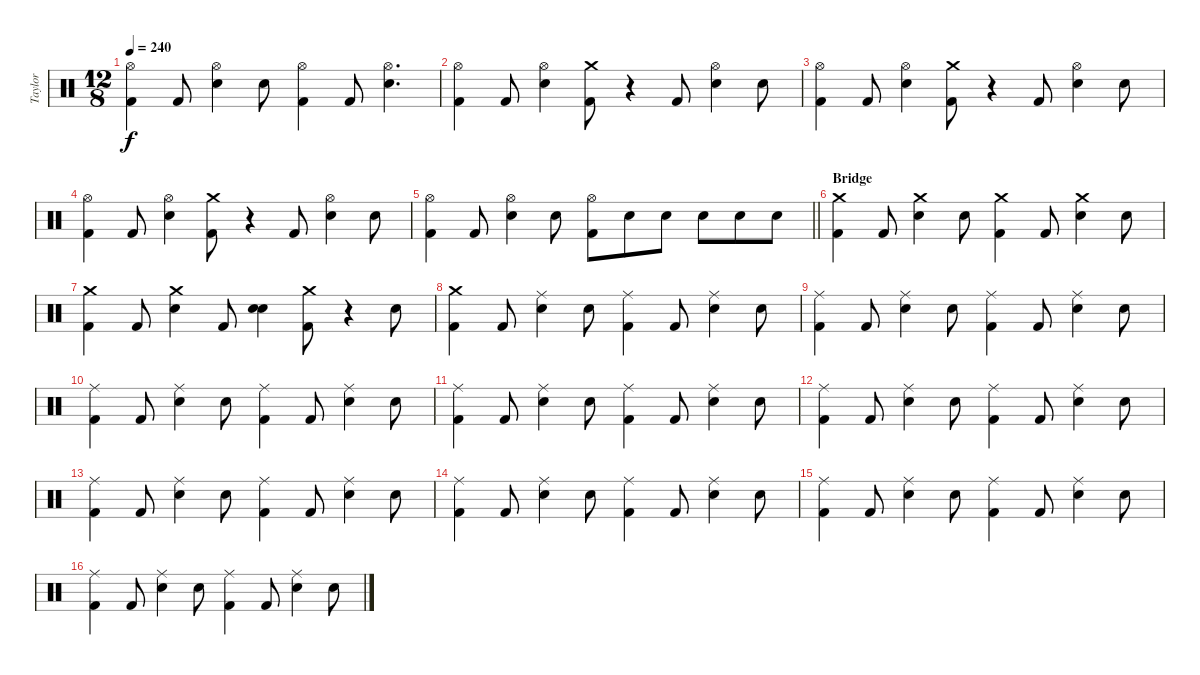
\track ("Taylor" "Taylor") {instrument percussion}
\staff {score}
\articulation defaults
\ts (12 8)
\tempo 240
\clef neutral
\ks c
("Hi-Hat (open)" "Kick (hit) 2").4{dy f} "Kick (hit) 2".8 ("Hi-Hat (open)" "Snare (hit) 2").4 "Snare (hit) 2".8 ("Hi-Hat (open)" "Kick (hit) 2").4 "Kick (hit) 2".8 ("Hi-Hat (open)" "Snare (hit) 2").4{d} |
("Hi-Hat (open)" "Kick (hit) 2").4 "Kick (hit) 2".8 ("Hi-Hat (open)" "Snare (hit) 2").4 ("Crash medium (hit)" "Kick (hit) 2").8 r.4 "Kick (hit) 2".8 ("Hi-Hat (open)" "Snare (hit) 2").4 "Snare (hit) 2".8 |
("Hi-Hat (open)" "Kick (hit) 2").4 "Kick (hit) 2".8 ("Hi-Hat (open)" "Snare (hit) 2").4 ("Crash medium (hit)" "Kick (hit) 2").8 r.4 "Kick (hit) 2".8 ("Hi-Hat (open)" "Snare (hit) 2").4 "Snare (hit) 2".8 |
("Hi-Hat (open)" "Kick (hit) 2").4 "Kick (hit) 2".8 ("Hi-Hat (open)" "Snare (hit) 2").4 ("Crash medium (hit)" "Kick (hit) 2").8 r.4 "Kick (hit) 2".8 ("Hi-Hat (open)" "Snare (hit) 2").4 "Snare (hit) 2".8 |
\barLineRight lightlight
("Hi-Hat (open)" "Kick (hit) 2").4 "Kick (hit) 2".8 ("Hi-Hat (open)" "Snare (hit) 2").4 "Snare (hit) 2".8 ("Hi-Hat (open)" "Kick (hit) 2").8 "Snare (hit) 2".8 "Snare (hit) 2".8 "Snare (hit) 2".8 "Snare (hit) 2".8 "Snare (hit) 2".8 |
\section ("" "Bridge")
("Crash medium (hit)" "Kick (hit) 2").4 "Kick (hit) 2".8 ("Crash medium (hit)" "Snare (hit) 2").4 "Snare (hit) 2".8 ("Crash medium (hit)" "Kick (hit) 2").4 "Kick (hit) 2".8 ("Crash medium (hit)" "Snare (hit) 2").4 "Snare (hit) 2".8 |
("Crash medium (hit)" "Kick (hit) 2").4 "Kick (hit) 2".8 ("Crash medium (hit)" "Snare (hit) 2").4 "Kick (hit) 2".8 ("Snare (hit) 2" "Snare (hit) 2").4 ("Crash medium (hit)" "Kick (hit) 2").8 r.4 "Snare (hit) 2".8 |
("Crash medium (hit)" "Kick (hit) 2").4 "Kick (hit) 2".8 ("Ride (middle)" "Snare (hit) 2").4 "Snare (hit) 2".8 ("Ride (middle)" "Kick (hit) 2").4 "Kick (hit) 2".8 ("Ride (middle)" "Snare (hit) 2").4 "Snare (hit) 2".8 |
("Ride (middle)" "Kick (hit) 2").4 "Kick (hit) 2".8 ("Ride (middle)" "Snare (hit) 2").4 "Snare (hit) 2".8 ("Ride (middle)" "Kick (hit) 2").4 "Kick (hit) 2".8 ("Ride (middle)" "Snare (hit) 2").4 "Snare (hit) 2".8 |
("Ride (middle)" "Kick (hit) 2").4 "Kick (hit) 2".8 ("Ride (middle)" "Snare (hit) 2").4 "Snare (hit) 2".8 ("Ride (middle)" "Kick (hit) 2").4 "Kick (hit) 2".8 ("Ride (middle)" "Snare (hit) 2").4 "Snare (hit) 2".8 |
("Ride (middle)" "Kick (hit) 2").4 "Kick (hit) 2".8 ("Ride (middle)" "Snare (hit) 2").4 "Snare (hit) 2".8 ("Ride (middle)" "Kick (hit) 2").4 "Kick (hit) 2".8 ("Ride (middle)" "Snare (hit) 2").4 "Snare (hit) 2".8 |
("Ride (middle)" "Kick (hit) 2").4 "Kick (hit) 2".8 ("Ride (middle)" "Snare (hit) 2").4 "Snare (hit) 2".8 ("Ride (middle)" "Kick (hit) 2").4 "Kick (hit) 2".8 ("Ride (middle)" "Snare (hit) 2").4 "Snare (hit) 2".8 |
("Ride (middle)" "Kick (hit) 2").4 "Kick (hit) 2".8 ("Ride (middle)" "Snare (hit) 2").4 "Snare (hit) 2".8 ("Ride (middle)" "Kick (hit) 2").4 "Kick (hit) 2".8 ("Ride (middle)" "Snare (hit) 2").4 "Snare (hit) 2".8 |
("Ride (middle)" "Kick (hit) 2").4 "Kick (hit) 2".8 ("Ride (middle)" "Snare (hit) 2").4 "Snare (hit) 2".8 ("Ride (middle)" "Kick (hit) 2").4 "Kick (hit) 2".8 ("Ride (middle)" "Snare (hit) 2").4 "Snare (hit) 2".8 |
("Ride (middle)" "Kick (hit) 2").4 "Kick (hit) 2".8 ("Ride (middle)" "Snare (hit) 2").4 "Snare (hit) 2".8 ("Ride (middle)" "Kick (hit) 2").4 "Kick (hit) 2".8 ("Ride (middle)" "Snare (hit) 2").4 "Snare (hit) 2".8 |
("Ride (middle)" "Kick (hit) 2").4 "Kick (hit) 2".8 ("Ride (middle)" "Snare (hit) 2").4 "Snare (hit) 2".8 ("Ride (middle)" "Kick (hit) 2").4 "Kick (hit) 2".8 ("Ride (middle)" "Snare (hit) 2").4 "Snare (hit) 2".8
